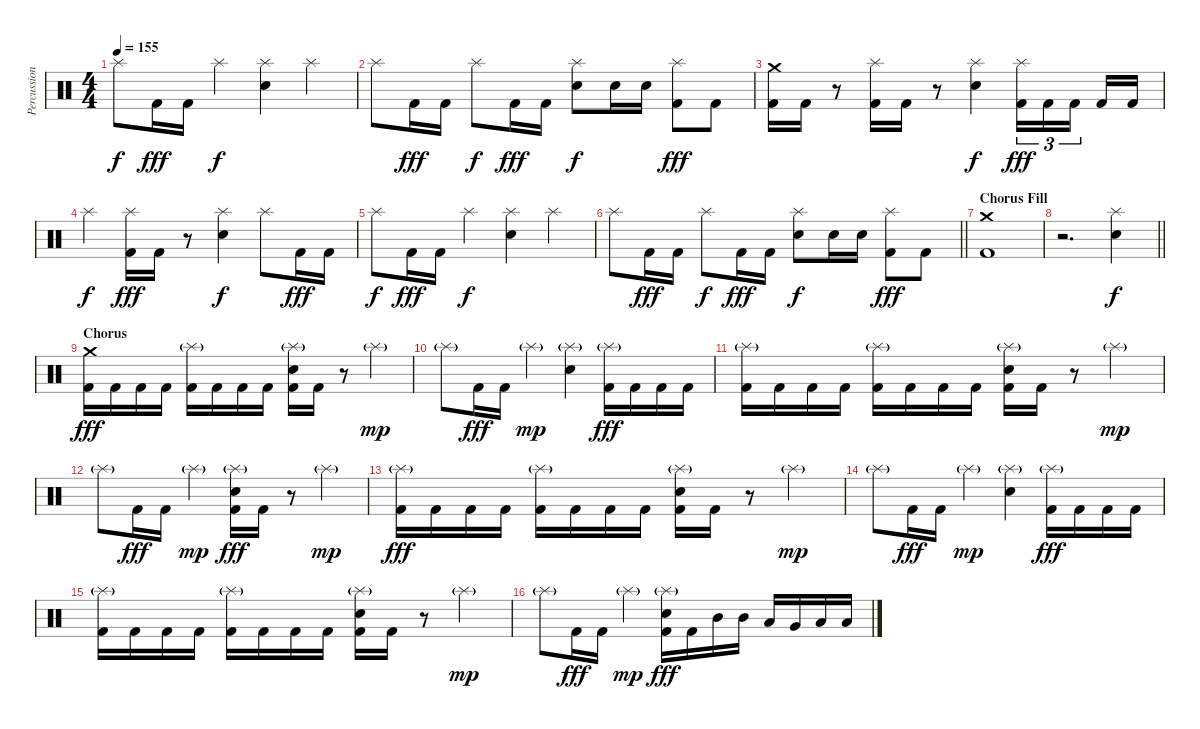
\track ("Percussion" "Percussion") {instrument percussion}
\staff {score}
\articulation defaults
\ts (4 4)
\tempo 155
\clef neutral
\ks c "Splash (hit)".8{dy f} "Kick (hit) 2".16{dy fff} "Kick (hit) 2".16 "Splash (hit)".4{dy f}
("Splash (hit)" "Electric Snare (hit)").4 "Splash (hit)".4 |
"Splash (hit)".8 "Kick (hit) 2".16{dy fff} "Kick (hit) 2".16 "Splash (hit)".8{dy f} "Kick (hit) 2".16{dy fff} "Kick (hit) 2".16 ("Splash (hit)" "Electric Snare (hit)").8{dy f} "Electric Snare (hit)".16 "Electric Snare (hit)".16 ("Splash (hit)" "Kick (hit) 2").8{dy fff} "Kick (hit) 2".8 |
("Crash medium (hit)" "Kick (hit) 2").16 "Kick (hit) 2".16 r.8 ("Splash (hit)" "Kick (hit) 2").16 "Kick (hit) 2".16 r.8 ("Splash (hit)" "Electric Snare (hit)").4{dy f} ("Splash (hit)" "Kick (hit) 2").16{tu (3 2) dy fff} "Kick (hit) 2".16{tu (3 2)} "Kick (hit) 2".16{tu (3 2) beam splitsecondary} "Kick (hit) 2".16 "Kick (hit) 2".16 |
"Splash (hit)".4{dy f} ("Splash (hit)" "Kick (hit) 2").16{dy fff} "Kick (hit) 2".16 r.8 ("Splash (hit)" "Electric Snare (hit)").4{dy f} "Splash (hit)".8 "Kick (hit) 2".16{dy fff} "Kick (hit) 2".16 |
"Splash (hit)".8{dy f} "Kick (hit) 2".16{dy fff} "Kick (hit) 2".16 "Splash (hit)".4{dy f} ("Splash (hit)" "Electric Snare (hit)").4 "Splash (hit)".4 |
\barLineRight lightlight "Splash (hit)".8 "Kick (hit) 2".16{dy fff} "Kick (hit) 2".16 "Splash (hit)".8{dy f} "Kick (hit) 2".16{dy fff} "Kick (hit) 2".16
("Splash (hit)" "Electric Snare (hit)").8{dy f} "Electric Snare (hit)".16 "Electric Snare (hit)".16 ("Splash (hit)" "Kick (hit) 2").8{dy fff} "Kick (hit) 2".8 |
\section ("" "Chorus Fill")
("Crash medium (hit)" "Kick (hit) 2").1 |
\barLineRight lightlight
r.2{d} ("Splash (hit)" "Electric Snare (hit)").4{dy f} |
\section ("" "Chorus")
("Crash medium (hit)" "Kick (hit) 2").16{dy fff} "Kick (hit) 2".16 "Kick (hit) 2".16 "Kick (hit) 2".16 ("Splash (hit)"{g} "Kick (hit) 2").16 "Kick (hit) 2".16 "Kick (hit) 2".16 "Kick (hit) 2".16 ("Splash (hit)"{g} "Electric Snare (hit)" "Kick (hit) 2").16 "Kick (hit) 2".16 r.8 "Splash (hit)"{g}.4{dy mp} |
"Splash (hit)"{g}.8 "Kick (hit) 2".16{dy fff} "Kick (hit) 2".16 "Splash (hit)"{g}.4{dy mp} ("Splash (hit)"{g} "Electric Snare (hit)").4 ("Splash (hit)"{g} "Kick (hit) 2").16{dy fff} "Kick (hit) 2".16 "Kick (hit) 2".16 "Kick (hit) 2".16 |
("Splash (hit)"{g} "Kick (hit) 2").16 "Kick (hit) 2".16 "Kick (hit) 2".16 "Kick (hit) 2".16 ("Splash (hit)"{g} "Kick (hit) 2").16 "Kick (hit) 2".16 "Kick (hit) 2".16 "Kick (hit) 2".16 ("Splash (hit)"{g} "Electric Snare (hit)" "Kick (hit) 2").16 "Kick (hit) 2".16 r.8 "Splash (hit)"{g}.4{dy mp} |
"Splash (hit)"{g}.8 "Kick (hit) 2".16{dy fff} "Kick (hit) 2".16 "Splash (hit)"{g}.4{dy mp} ("Splash (hit)"{g} "Electric Snare (hit)" "Kick (hit) 2").16{dy fff} "Kick (hit) 2".16 r.8 "Splash (hit)"{g}.4{dy mp} |
("Splash (hit)"{g} "Kick (hit) 2").16{dy fff} "Kick (hit) 2".16 "Kick (hit) 2".16 "Kick (hit) 2".16 ("Splash (hit)"{g} "Kick (hit) 2").16 "Kick (hit) 2".16 "Kick (hit) 2".16 "Kick (hit) 2".16 ("Splash (hit)"{g} "Electric Snare (hit)" "Kick (hit) 2").16 "Kick (hit) 2".16 r.8 "Splash (hit)"{g}.4{dy mp} |
"Splash (hit)"{g}.8 "Kick (hit) 2".16{dy fff} "Kick (hit) 2".16 "Splash (hit)"{g}.4{dy mp} ("Splash (hit)"{g} "Electric Snare (hit)").4 ("Splash (hit)"{g} "Kick (hit) 2").16{dy fff} "Kick (hit) 2".16 "Kick (hit) 2".16 "Kick (hit) 2".16 |
("Splash (hit)"{g} "Kick (hit) 2").16 "Kick (hit) 2".16 "Kick (hit) 2".16 "Kick (hit) 2".16 ("Splash (hit)"{g} "Kick (hit) 2").16 "Kick (hit) 2".16 "Kick (hit) 2".16 "Kick (hit) 2".16 ("Splash (hit)"{g} "Electric Snare (hit)" "Kick (hit) 2").16 "Kick (hit) 2".16 r.8 "Splash (hit)"{g}.4{dy mp} |
"Splash (hit)"{g}.8 "Kick (hit) 2".16{dy fff} "Kick (hit) 2".16 "Splash (hit)"{g}.4{dy mp} ("Splash (hit)"{g} "Electric Snare (hit)" "Kick (hit) 2").16{dy fff} "Kick (hit) 2".16 "Mid Tom (hit)".16 "Mid Tom (hit)".16 "Low Tom (hit)".16 "Very Low Tom (hit)".16 "Low Floor Tom (hit)".16 "Low Floor Tom (hit)".16
